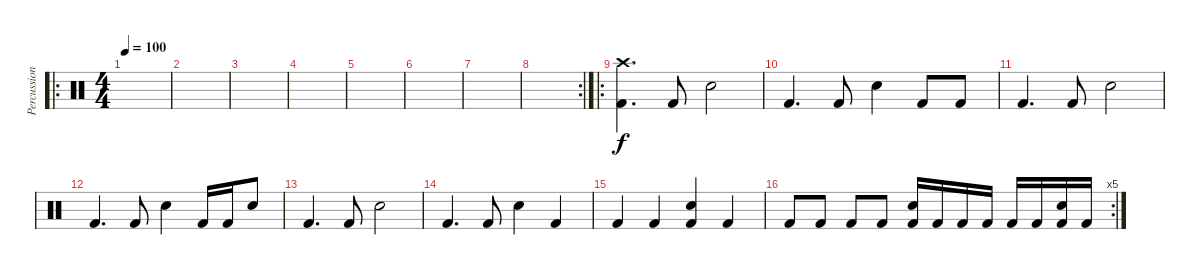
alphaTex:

\track ("Percussions" "Percussion") {instrument percussion}
\staff {score}
\articulation defaults
\ro
\ts (4 4)
\tempo 100
\clef neutral
\ks c
|
|
|
|
|
|
|
\rc 2
|
\ro
("Crash high (hit)" "Kick (hit) 2").4{d} "Kick (hit) 2".8 "Snare (hit) 2".2 |
"Kick (hit) 2".4{d} "Kick (hit) 2".8 "Snare (hit) 2".4 "Kick (hit) 2".8 "Kick (hit) 2".8 |
"Kick (hit) 2".4{d} "Kick (hit) 2".8 "Snare (hit) 2".2 |
"Kick (hit) 2".4{d} "Kick (hit) 2".8 "Snare (hit) 2".4 "Kick (hit) 2".16 "Kick (hit) 2".16 "Snare (hit) 2".8 |
"Kick (hit) 2".4{d} "Kick (hit) 2".8 "Snare (hit) 2".2 |
"Kick (hit) 2".4{d} "Kick (hit) 2".8 "Snare (hit) 2".4 "Kick (hit) 2".4 |
"Kick (hit) 2".4 "Kick (hit) 2".4 ("Snare (hit) 2" "Kick (hit) 2").4 "Kick (hit) 2".4 |
\rc 5 "Kick (hit) 2".8 "Kick (hit) 2".8 "Kick (hit) 2".8 "Kick (hit) 2".8
("Snare (hit) 2" "Kick (hit) 2").16 "Kick (hit) 2".16 "Kick (hit) 2".16 "Kick (hit) 2".16 "Kick (hit) 2".16 "Kick (hit) 2".16 ("Snare (hit) 2" "Kick (hit) 2").16 "Kick (hit) 2".16
